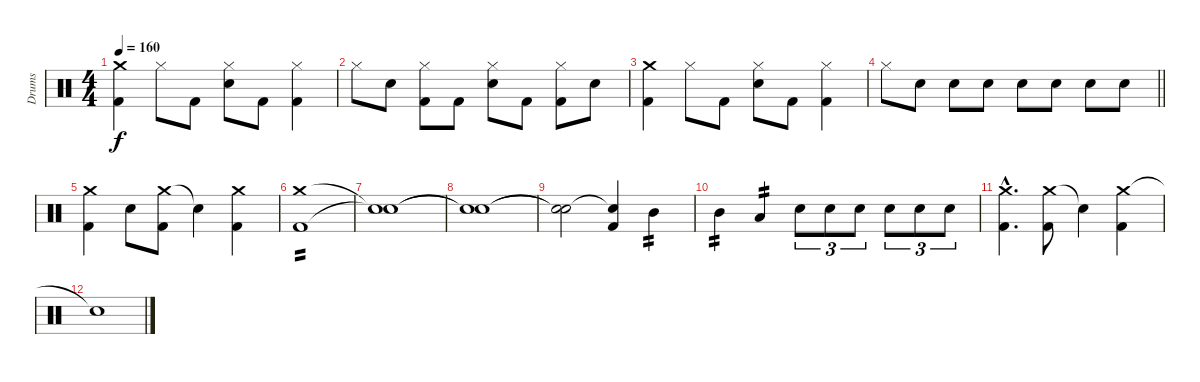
\track ("Drums" "Drums") {instrument percussion}
\staff {score}
\articulation defaults
\ts (4 4)
\tempo 160
\clef neutral
\ks c
("Crash medium (hit)" "Kick (hit) 2").4{dy f} "Hi-Hat (closed)".8 "Kick (hit) 2".8 ("Hi-Hat (closed)" "Snare (hit) 2").8 "Kick (hit) 2".8 ("Hi-Hat (closed)" "Kick (hit) 2").4 |
"Hi-Hat (closed)".8 "Snare (hit) 2".8 ("Hi-Hat (closed)" "Kick (hit) 2").8 "Kick (hit) 2".8 ("Hi-Hat (closed)" "Snare (hit) 2").8 "Kick (hit) 2".8 ("Hi-Hat (closed)" "Kick (hit) 2").8 "Snare (hit) 2".8 |
("Crash medium (hit)" "Kick (hit) 2").4 "Hi-Hat (closed)".8 "Kick (hit) 2".8 ("Hi-Hat (closed)" "Snare (hit) 2").8 "Kick (hit) 2".8 ("Hi-Hat (closed)" "Kick (hit) 2").4 |
\barLineRight lightlight "Hi-Hat (closed)".8 "Snare (hit) 2".8 "Snare (hit) 2".8 "Snare (hit) 2".8 "Snare (hit) 2".8 "Snare (hit) 2".8 "Snare (hit) 2".8 "Snare (hit) 2".8
|
("Crash medium (hit)" "Kick (hit) 2").4 "Snare (hit) 2".8 ("Crash medium (hit)" "Kick (hit) 2").8 "Snare (hit)"{t}.4 ("Crash medium (hit)" "Kick (hit) 2").4 |
("Crash medium (hit)" "Kick (hit) 2").1{tp 2} |
("Snare (hit)"{t} "Snare (hit)"{t}).1 |
("Snare (hit)"{t} "Snare (hit)"{t}).1 |
("Snare (hit)"{t} "Snare (hit)"{t}).2 ("Snare (hit)"{t} "Kick (hit) 2").4 "Mid Tom (hit)".4{tp 2} |
"Mid Tom (hit)".4{tp 2} "Low Tom (hit)".4{tp 2} "Snare (hit) 2".8{tu (3 2)} "Snare (hit) 2".8{tu (3 2)} "Snare (hit) 2".8{tu (3 2)} "Snare (hit) 2".8{tu (3 2)} "Snare (hit) 2".8{tu (3 2)} "Snare (hit) 2".8{tu (3 2)} |
("Crash medium (hit)"{hac} "Kick (hit) 2"{hac}).4{d} ("Crash medium (hit)" "Kick (hit) 2").8 "Snare (hit)"{t}.4 ("Crash medium (hit)" "Kick (hit) 2").4 |
"Snare (hit)"{t}.1
